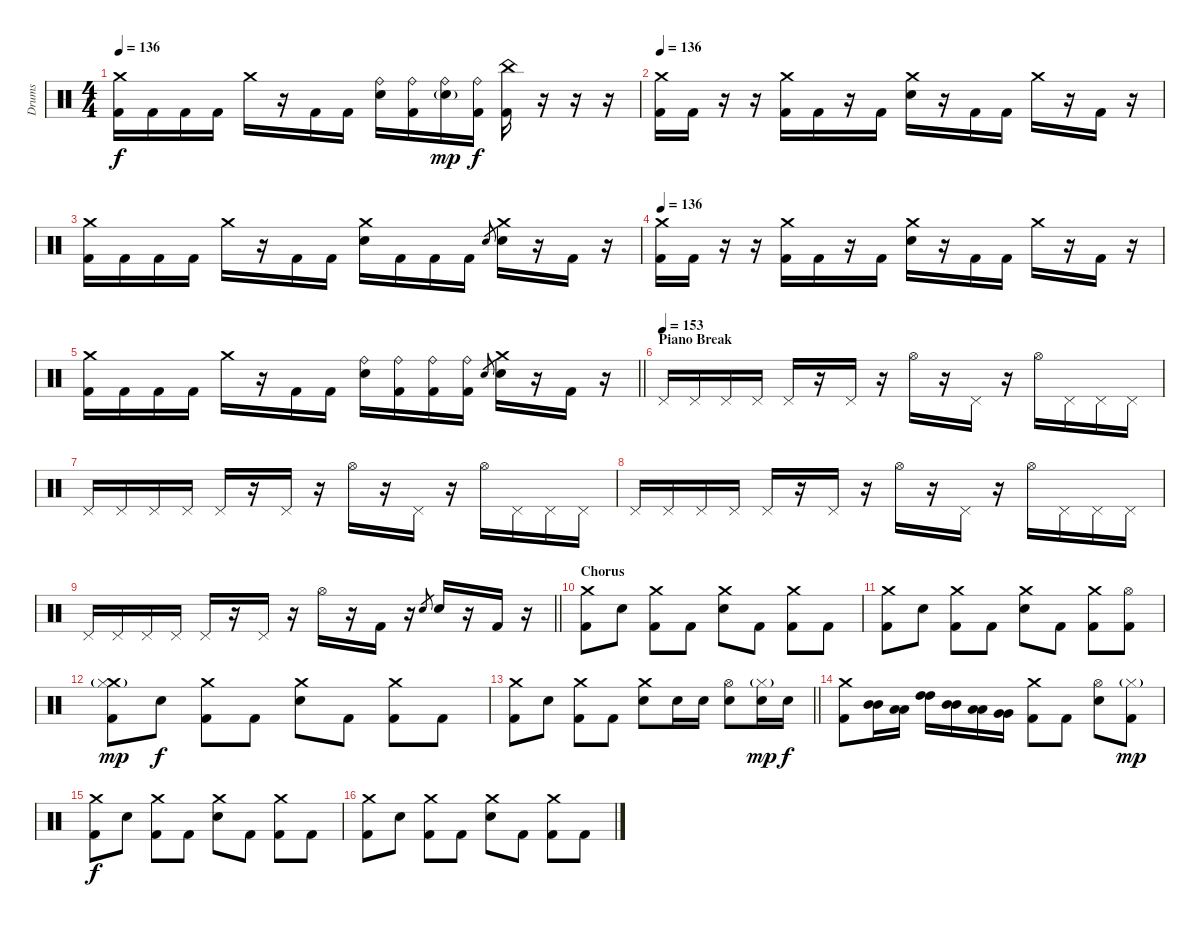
\track ("Drums" "Drums") {instrument percussion}
\staff {score}
\articulation defaults
\ts (4 4)
\tempo 136
\clef neutral
\ks c
("Crash medium (hit)" "Kick (hit) 2").16{dy f} "Kick (hit) 2".16 "Kick (hit) 2".16 "Kick (hit) 2".16 "Crash medium (hit)".16 r.16 "Kick (hit) 2".16 "Kick (hit) 2".16 ("Ride (bell)" "Electric Snare (hit)").16 ("Ride (bell)" "Kick (hit) 2").16 ("Ride (bell)" "Electric Snare (hit)"{g}).16{dy mp} ("Ride (bell)" "Kick (hit) 2").16{dy f} ("China (hit)" "Kick (hit) 2").16 r.16 r.16 r.16 |
\tempo 136
("Crash medium (hit)" "Kick (hit) 2").16 "Kick (hit) 2".16 r.16 r.16 ("Crash medium (hit)" "Kick (hit) 2").16 "Kick (hit) 2".16 r.16 "Kick (hit) 2".16 ("Crash medium (hit)" "Electric Snare (hit)").16 r.16 "Kick (hit) 2".16 "Kick (hit) 2".16 "Crash medium (hit)".16 r.16 "Kick (hit) 2".16 r.16 |
("Crash medium (hit)" "Kick (hit) 2").16 "Kick (hit) 2".16 "Kick (hit) 2".16 "Kick (hit) 2".16 "Crash medium (hit)".16 r.16 "Kick (hit) 2".16 "Kick (hit) 2".16 ("Crash medium (hit)" "Electric Snare (hit)").16 "Kick (hit) 2".16 "Kick (hit) 2".16 "Kick (hit) 2".16 "Electric Snare (hit)".8{gr} ("Crash medium (hit)" "Electric Snare (hit)").16 r.16 "Kick (hit) 2".16 r.16 |
\tempo 136
("Crash medium (hit)" "Kick (hit) 2").16 "Kick (hit) 2".16 r.16 r.16 ("Crash medium (hit)" "Kick (hit) 2").16 "Kick (hit) 2".16 r.16 "Kick (hit) 2".16 ("Crash medium (hit)" "Electric Snare (hit)").16 r.16 "Kick (hit) 2".16 "Kick (hit) 2".16 "Crash medium (hit)".16 r.16 "Kick (hit) 2".16 r.16 |
\barLineRight lightlight
("Crash medium (hit)" "Kick (hit) 2").16 "Kick (hit) 2".16 "Kick (hit) 2".16 "Kick (hit) 2".16 "Crash medium (hit)".16 r.16 "Kick (hit) 2".16 "Kick (hit) 2".16 ("Ride (bell)" "Electric Snare (hit)").16 ("Ride (bell)" "Kick (hit) 2").16 ("Ride (bell)" "Kick (hit) 2").16 ("Ride (bell)" "Kick (hit) 2").16 "Electric Snare (hit)".8{gr} ("Crash medium (hit)" "Electric Snare (hit)").16 r.16 "Kick (hit) 2".16 r.16 |
\section ("" "Piano Break")
\tempo (153)
"Pedal Hi-Hat (hit)".16 "Pedal Hi-Hat (hit)".16 "Pedal Hi-Hat (hit)".16 "Pedal Hi-Hat (hit)".16 "Pedal Hi-Hat (hit)".16 r.16 "Pedal Hi-Hat (hit)".16 r.16 "Hi-Hat (open)".16 r.16 "Pedal Hi-Hat (hit)".16 r.16 "Hi-Hat (open)".16 "Pedal Hi-Hat (hit)".16 "Pedal Hi-Hat (hit)".16 "Pedal Hi-Hat (hit)".16 |
"Pedal Hi-Hat (hit)".16 "Pedal Hi-Hat (hit)".16 "Pedal Hi-Hat (hit)".16 "Pedal Hi-Hat (hit)".16 "Pedal Hi-Hat (hit)".16 r.16 "Pedal Hi-Hat (hit)".16 r.16 "Hi-Hat (open)".16 r.16 "Pedal Hi-Hat (hit)".16 r.16 "Hi-Hat (open)".16 "Pedal Hi-Hat (hit)".16 "Pedal Hi-Hat (hit)".16 "Pedal Hi-Hat (hit)".16 |
"Pedal Hi-Hat (hit)".16 "Pedal Hi-Hat (hit)".16 "Pedal Hi-Hat (hit)".16 "Pedal Hi-Hat (hit)".16 "Pedal Hi-Hat (hit)".16 r.16 "Pedal Hi-Hat (hit)".16 r.16 "Hi-Hat (open)".16 r.16 "Pedal Hi-Hat (hit)".16 r.16 "Hi-Hat (open)".16 "Pedal Hi-Hat (hit)".16 "Pedal Hi-Hat (hit)".16 "Pedal Hi-Hat (hit)".16 |
\barLineRight lightlight "Pedal Hi-Hat (hit)".16 "Pedal Hi-Hat (hit)".16 "Pedal Hi-Hat (hit)".16 "Pedal Hi-Hat (hit)".16 "Pedal Hi-Hat (hit)".16
r.16 "Pedal Hi-Hat (hit)".16 r.16 "Hi-Hat (open)".16 r.16 "Kick (hit) 2".16 r.16 "Electric Snare (hit)".8{gr} "Electric Snare (hit)".16 r.16 "Kick (hit) 2".16 r.16 |
\section ("" "Chorus")
("Crash medium (hit)" "Kick (hit) 2").8 "Electric Snare (hit)".8 ("Crash medium (hit)" "Kick (hit) 2").8 "Kick (hit) 2".8 ("Crash medium (hit)" "Electric Snare (hit)").8 "Kick (hit) 2".8 ("Crash medium (hit)" "Kick (hit) 2").8 "Kick (hit) 2".8 |
("Crash medium (hit)" "Kick (hit) 2").8 "Electric Snare (hit)".8 ("Crash medium (hit)" "Kick (hit) 2").8 "Kick (hit) 2".8 ("Crash medium (hit)" "Electric Snare (hit)").8 "Kick (hit) 2".8 ("Crash medium (hit)" "Kick (hit) 2").8 ("Hi-Hat (open)" "Kick (hit) 2").8 |
("Crash medium (hit)" "Hi-Hat (closed)"{g} "Kick (hit) 2").8{dy mp} "Electric Snare (hit)".8{dy f} ("Crash medium (hit)" "Kick (hit) 2").8 "Kick (hit) 2".8 ("Crash medium (hit)" "Electric Snare (hit)").8 "Kick (hit) 2".8 ("Crash medium (hit)" "Kick (hit) 2").8 "Kick (hit) 2".8 |
\barLineRight lightlight
("Crash medium (hit)" "Kick (hit) 2").8 "Electric Snare (hit)".8 ("Crash medium (hit)" "Kick (hit) 2").8 "Kick (hit) 2".8 ("Crash medium (hit)" "Electric Snare (hit)").8 "Electric Snare (hit)".16 "Electric Snare (hit)".16 ("Hi-Hat (open)" "Electric Snare (hit)").8 ("Hi-Hat (closed)"{g} "Electric Snare (hit)").16{dy mp} "Electric Snare (hit)".16{dy f} |
("Crash medium (hit)" "Kick (hit) 2").8 ("Mid Tom (hit)" "Mid Tom (hit)").16 ("Low Tom (hit)" "Low Tom (hit)").16 ("High Tom (hit)" "High Tom (hit)").16 ("Mid Tom (hit)" "Mid Tom (hit)").16 ("Low Tom (hit)" "Low Tom (hit)").16 ("Very Low Tom (hit)" "Very Low Tom (hit)").16 ("Crash medium (hit)" "Kick (hit) 2").8 "Kick (hit) 2".8 ("Hi-Hat (open)" "Electric Snare (hit)").8 ("Hi-Hat (closed)"{g} "Kick (hit) 2").8{dy mp} |
("Crash medium (hit)" "Kick (hit) 2").8{dy f} "Electric Snare (hit)".8 ("Crash medium (hit)" "Kick (hit) 2").8 "Kick (hit) 2".8 ("Crash medium (hit)" "Electric Snare (hit)").8 "Kick (hit) 2".8 ("Crash medium (hit)" "Kick (hit) 2").8 "Kick (hit) 2".8 |
("Crash medium (hit)" "Kick (hit) 2").8 "Electric Snare (hit)".8 ("Crash medium (hit)" "Kick (hit) 2").8 "Kick (hit) 2".8 ("Crash medium (hit)" "Electric Snare (hit)").8 "Kick (hit) 2".8 ("Crash medium (hit)" "Kick (hit) 2").8 "Kick (hit) 2".8
